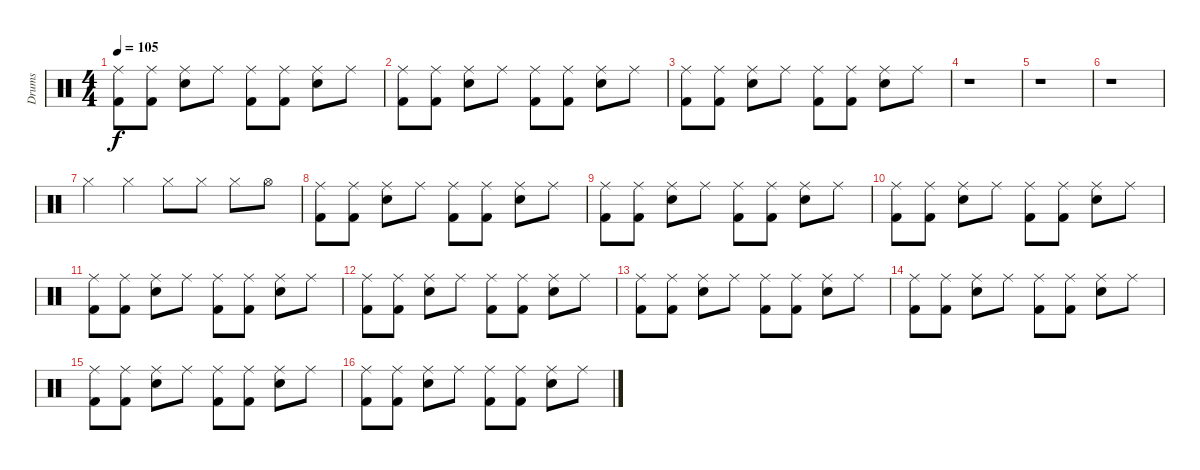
\track ("Drums" "Drums") {instrument percussion}
\staff {score}
\articulation defaults
\ts (4 4)
\tempo 105
\clef neutral
\ks c
("Ride (middle)" "Kick (hit) 2").8{dy f} ("Ride (middle)" "Kick (hit) 2").8 ("Ride (middle)" "Snare (hit) 2").8 "Ride (middle)".8 ("Ride (middle)" "Kick (hit) 2").8 ("Ride (middle)" "Kick (hit) 2").8 ("Ride (middle)" "Snare (hit) 2").8 "Ride (middle)".8 |
("Ride (middle)" "Kick (hit) 2").8 ("Ride (middle)" "Kick (hit) 2").8 ("Ride (middle)" "Snare (hit) 2").8 "Ride (middle)".8 ("Ride (middle)" "Kick (hit) 2").8 ("Ride (middle)" "Kick (hit) 2").8 ("Ride (middle)" "Snare (hit) 2").8 "Ride (middle)".8 |
("Ride (middle)" "Kick (hit) 2").8 ("Ride (middle)" "Kick (hit) 2").8 ("Ride (middle)" "Snare (hit) 2").8 "Ride (middle)".8 ("Ride (middle)" "Kick (hit) 2").8 ("Ride (middle)" "Kick (hit) 2").8 ("Ride (middle)" "Snare (hit) 2").8 "Ride (middle)".8 |
r.1 |
r.1 |
r.1 |
"Hi-Hat (closed)".4 "Hi-Hat (closed)".4 "Hi-Hat (closed)".8 "Hi-Hat (closed)".8 "Hi-Hat (closed)".8 "Hi-Hat (open)".8 |
("Ride (middle)" "Kick (hit) 2").8 ("Ride (middle)" "Kick (hit) 2").8 ("Ride (middle)" "Snare (hit) 2").8 "Ride (middle)".8 ("Ride (middle)" "Kick (hit) 2").8 ("Ride (middle)" "Kick (hit) 2").8 ("Ride (middle)" "Snare (hit) 2").8 "Ride (middle)".8 |
("Ride (middle)" "Kick (hit) 2").8 ("Ride (middle)" "Kick (hit) 2").8 ("Ride (middle)" "Snare (hit) 2").8 "Ride (middle)".8 ("Ride (middle)" "Kick (hit) 2").8 ("Ride (middle)" "Kick (hit) 2").8 ("Ride (middle)" "Snare (hit) 2").8 "Ride (middle)".8 |
("Ride (middle)" "Kick (hit) 2").8 ("Ride (middle)" "Kick (hit) 2").8 ("Ride (middle)" "Snare (hit) 2").8 "Ride (middle)".8 ("Ride (middle)" "Kick (hit) 2").8 ("Ride (middle)" "Kick (hit) 2").8 ("Ride (middle)" "Snare (hit) 2").8 "Ride (middle)".8 |
("Ride (middle)" "Kick (hit) 2").8 ("Ride (middle)" "Kick (hit) 2").8 ("Ride (middle)" "Snare (hit) 2").8 "Ride (middle)".8 ("Ride (middle)" "Kick (hit) 2").8 ("Ride (middle)" "Kick (hit) 2").8 ("Ride (middle)" "Snare (hit) 2").8 "Ride (middle)".8 |
("Ride (middle)" "Kick (hit) 2").8 ("Ride (middle)" "Kick (hit) 2").8 ("Ride (middle)" "Snare (hit) 2").8 "Ride (middle)".8 ("Ride (middle)" "Kick (hit) 2").8 ("Ride (middle)" "Kick (hit) 2").8 ("Ride (middle)" "Snare (hit) 2").8 "Ride (middle)".8 |
("Ride (middle)" "Kick (hit) 2").8 ("Ride (middle)" "Kick (hit) 2").8 ("Ride (middle)" "Snare (hit) 2").8 "Ride (middle)".8 ("Ride (middle)" "Kick (hit) 2").8 ("Ride (middle)" "Kick (hit) 2").8 ("Ride (middle)" "Snare (hit) 2").8 "Ride (middle)".8 |
("Ride (middle)" "Kick (hit) 2").8 ("Ride (middle)" "Kick (hit) 2").8 ("Ride (middle)" "Snare (hit) 2").8 "Ride (middle)".8 ("Ride (middle)" "Kick (hit) 2").8 ("Ride (middle)" "Kick (hit) 2").8 ("Ride (middle)" "Snare (hit) 2").8 "Ride (middle)".8 |
("Ride (middle)" "Kick (hit) 2").8 ("Ride (middle)" "Kick (hit) 2").8 ("Ride (middle)" "Snare (hit) 2").8 "Ride (middle)".8 ("Ride (middle)" "Kick (hit) 2").8 ("Ride (middle)" "Kick (hit) 2").8 ("Ride (middle)" "Snare (hit) 2").8 "Ride (middle)".8 |
("Ride (middle)" "Kick (hit) 2").8 ("Ride (middle)" "Kick (hit) 2").8 ("Ride (middle)" "Snare (hit) 2").8 "Ride (middle)".8 ("Ride (middle)" "Kick (hit) 2").8 ("Ride (middle)" "Kick (hit) 2").8 ("Ride (middle)" "Snare (hit) 2").8 "Ride (middle)".8
